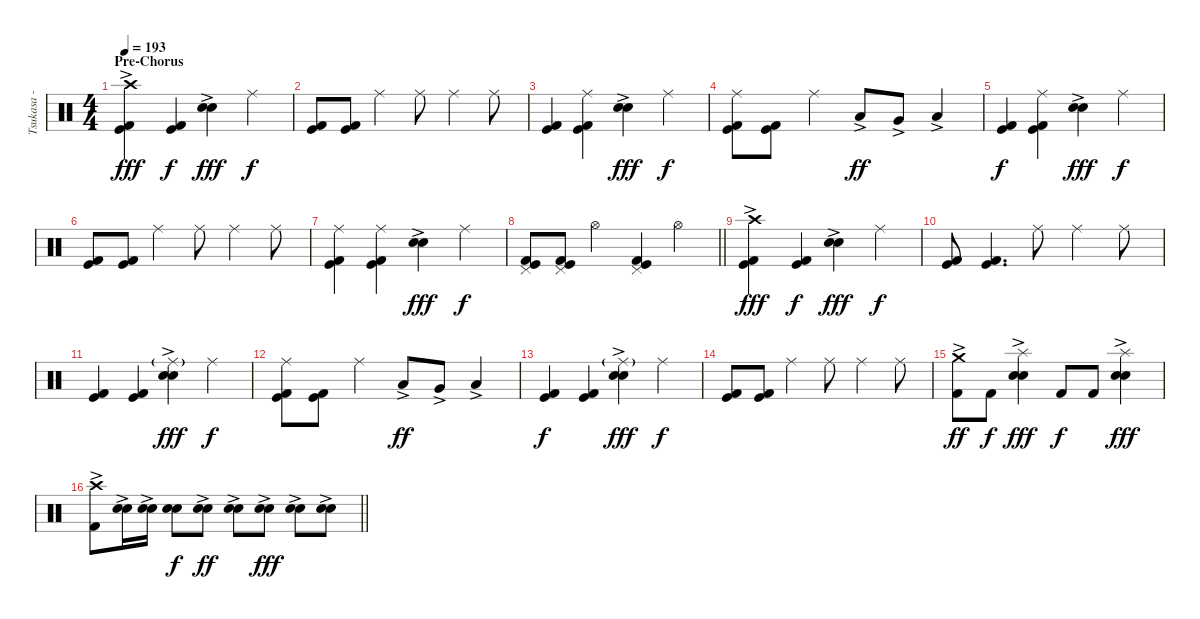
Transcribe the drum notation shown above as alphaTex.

\track ("Tsukasa - Drums" "Tsukasa - ") {instrument percussion}
\staff {score}
\articulation defaults
\ts (4 4)
\section ("" "Pre-Chorus")
\tempo 193
\clef neutral
\ks c
("Crash high (hit)"{ac} "Kick (hit) 2" "Kick (hit)").4{dy fff} ("Kick (hit) 2" "Kick (hit)").4{dy f} ("Electric Snare (hit)"{ac} "Snare (hit) 2").4{dy fff} "Ride (middle)".4{dy f} |
("Kick (hit) 2" "Kick (hit)").8 ("Kick (hit) 2" "Kick (hit)").8 "Ride (middle)".4 "Ride (middle)".8 "Ride (middle)".4 "Ride (middle)".8 |
("Kick (hit) 2" "Kick (hit)").4 ("Ride (middle)" "Kick (hit) 2" "Kick (hit)").4 ("Electric Snare (hit)"{ac} "Snare (hit) 2").4{dy fff} "Ride (middle)".4{dy f} |
("Ride (middle)" "Kick (hit) 2" "Kick (hit)").8 ("Kick (hit) 2" "Kick (hit)").8 "Ride (middle)".4 "Low Tom (hit)"{ac}.8{dy ff} "Very Low Tom (hit)"{ac}.8 "Low Floor Tom (hit)"{ac}.4 |
("Kick (hit) 2" "Kick (hit)").4{dy f} ("Ride (middle)" "Kick (hit) 2" "Kick (hit)").4 ("Electric Snare (hit)"{ac} "Snare (hit) 2").4{dy fff} "Ride (middle)".4{dy f} |
("Kick (hit) 2" "Kick (hit)").8 ("Kick (hit) 2" "Kick (hit)").8 "Ride (middle)".4 "Ride (middle)".8 "Ride (middle)".4 "Ride (middle)".8 |
("Ride (middle)" "Kick (hit) 2" "Kick (hit)").4 ("Ride (middle)" "Kick (hit) 2" "Kick (hit)").4 ("Electric Snare (hit)"{ac} "Snare (hit) 2").4{dy fff} "Ride (middle)".4{dy f} |
\barLineRight lightlight
("Pedal Hi-Hat (hit)" "Kick (hit) 2" "Kick (hit)").8 ("Pedal Hi-Hat (hit)" "Kick (hit) 2" "Kick (hit)").8 "Hi-Hat (open)".4 ("Pedal Hi-Hat (hit)" "Kick (hit) 2" "Kick (hit)").4 "Hi-Hat (open)".4 |
\section ("" "")
("Crash high (hit)"{ac} "Kick (hit) 2" "Kick (hit)").4{dy fff} ("Kick (hit) 2" "Kick (hit)").4{dy f} ("Electric Snare (hit)"{ac} "Snare (hit) 2").4{dy fff} "Ride (middle)".4{dy f} |
("Kick (hit) 2" "Kick (hit)").8 ("Kick (hit) 2" "Kick (hit)").4{d} "Ride (middle)".8 "Ride (middle)".4 "Ride (middle)".8 |
("Kick (hit) 2" "Kick (hit)").4 ("Kick (hit) 2" "Kick (hit)").4 ("Ride (middle)"{g} "Electric Snare (hit)"{ac} "Snare (hit) 2").4{dy fff} "Ride (middle)".4{dy f} |
("Ride (middle)" "Kick (hit) 2" "Kick (hit)").8 ("Kick (hit) 2" "Kick (hit)").8 "Ride (middle)".4 "Low Tom (hit)"{ac}.8{dy ff} "Very Low Tom (hit)"{ac}.8 "Low Floor Tom (hit)"{ac}.4 |
("Kick (hit) 2" "Kick (hit)").4{dy f} ("Kick (hit) 2" "Kick (hit)").4 ("Ride (middle)"{g} "Electric Snare (hit)"{ac} "Snare (hit) 2").4{dy fff} "Ride (middle)".4{dy f} |
("Kick (hit) 2" "Kick (hit)").8 ("Kick (hit) 2" "Kick (hit)").8 "Ride (middle)".4 "Ride (middle)".8 "Ride (middle)".4 "Ride (middle)".8 |
("Crash medium (hit)"{ac} "Kick (hit) 2").8{dy ff} "Kick (hit) 2".8{dy f} ("Splash (hit)"{ac} "Electric Snare (hit)"{ac} "Snare (hit) 2").4{dy fff} "Kick (hit) 2".8{dy f} "Kick (hit) 2".8 ("Splash (hit)"{ac} "Electric Snare (hit)"{ac} "Snare (hit) 2").4{dy fff} |
\barLineRight lightlight
("Crash high (hit)"{ac} "Kick (hit) 2").8 ("Electric Snare (hit)"{ac} "Snare (hit) 2").16 ("Electric Snare (hit)"{ac} "Snare (hit) 2").16 ("Electric Snare (hit)" "Snare (hit) 2").8{dy f} ("Electric Snare (hit)"{ac} "Snare (hit) 2").8{dy ff} ("Electric Snare (hit)"{ac} "Snare (hit) 2").8 ("Electric Snare (hit)"{ac} "Snare (hit) 2").8{dy fff} ("Electric Snare (hit)"{ac} "Snare (hit) 2").8 ("Electric Snare (hit)"{ac} "Snare (hit) 2").8
